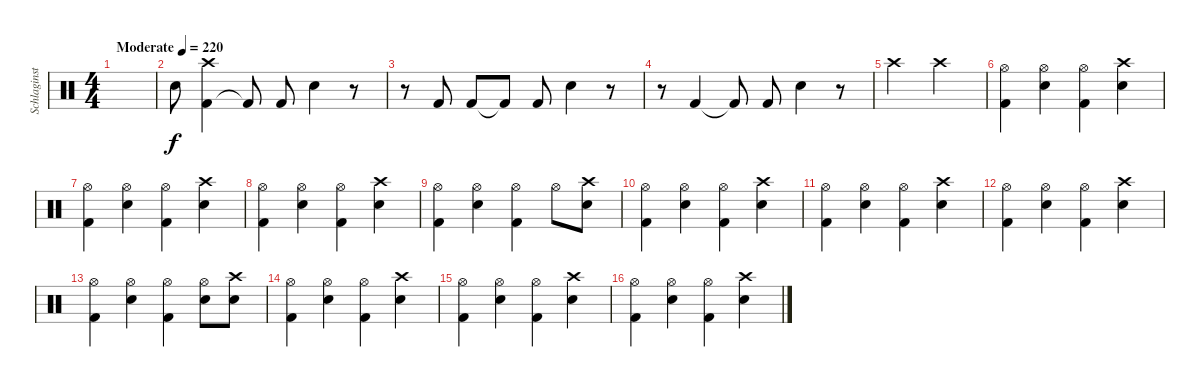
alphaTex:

\track ("Schlaginstrumente - Auswahl" "Schlaginst") {instrument percussion}
\staff {score}
\articulation defaults
\ts (4 4)
\tempo (220 "Moderate")
\clef neutral
\ks c
|
"Snare (hit) 2".8 ("Kick (hit) 2" "Crash high (hit)").4 "Kick (hit) 2"{t}.8 "Kick (hit) 2".8 "Snare (hit) 2".4 r.8 |
r.8 "Kick (hit) 2".8 "Kick (hit) 2".8 "Kick (hit) 2"{t}.8 "Kick (hit) 2".8 "Snare (hit) 2".4 r.8 |
r.8 "Kick (hit) 2".4 "Kick (hit) 2"{t}.8 "Kick (hit) 2".8 "Snare (hit) 2".4 r.8 |
"Crash high (hit)".2 "Crash high (hit)".2 |
("Hi-Hat (open)" "Kick (hit) 2").4 ("Hi-Hat (open)" "Snare (hit) 2").4 ("Hi-Hat (open)" "Kick (hit) 2").4 ("Crash high (hit)" "Snare (hit) 2").4 |
("Hi-Hat (open)" "Kick (hit) 2").4 ("Hi-Hat (open)" "Snare (hit) 2").4 ("Hi-Hat (open)" "Kick (hit) 2").4 ("Crash high (hit)" "Snare (hit) 2").4 |
("Hi-Hat (open)" "Kick (hit) 2").4 ("Hi-Hat (open)" "Snare (hit) 2").4 ("Hi-Hat (open)" "Kick (hit) 2").4 ("Crash high (hit)" "Snare (hit) 2").4 |
("Hi-Hat (open)" "Kick (hit) 2").4 ("Hi-Hat (open)" "Snare (hit) 2").4 ("Hi-Hat (open)" "Kick (hit) 2").4 "Hi-Hat (open)".8 ("Crash high (hit)" "Snare (hit) 2").8 |
("Hi-Hat (open)" "Kick (hit) 2").4 ("Hi-Hat (open)" "Snare (hit) 2").4 ("Hi-Hat (open)" "Kick (hit) 2").4 ("Crash high (hit)" "Snare (hit) 2").4 |
("Hi-Hat (open)" "Kick (hit) 2").4 ("Hi-Hat (open)" "Snare (hit) 2").4 ("Hi-Hat (open)" "Kick (hit) 2").4 ("Crash high (hit)" "Snare (hit) 2").4 |
("Hi-Hat (open)" "Kick (hit) 2").4 ("Hi-Hat (open)" "Snare (hit) 2").4 ("Hi-Hat (open)" "Kick (hit) 2").4 ("Crash high (hit)" "Snare (hit) 2").4 |
("Hi-Hat (open)" "Kick (hit) 2").4 ("Hi-Hat (open)" "Snare (hit) 2").4 ("Hi-Hat (open)" "Kick (hit) 2").4 ("Hi-Hat (open)" "Snare (hit) 2").8 ("Crash high (hit)" "Snare (hit) 2").8 |
("Hi-Hat (open)" "Kick (hit) 2").4 ("Hi-Hat (open)" "Snare (hit) 2").4 ("Hi-Hat (open)" "Kick (hit) 2").4 ("Crash high (hit)" "Snare (hit) 2").4 |
("Hi-Hat (open)" "Kick (hit) 2").4 ("Hi-Hat (open)" "Snare (hit) 2").4 ("Hi-Hat (open)" "Kick (hit) 2").4 ("Crash high (hit)" "Snare (hit) 2").4 |
("Hi-Hat (open)" "Kick (hit) 2").4 ("Hi-Hat (open)" "Snare (hit) 2").4 ("Hi-Hat (open)" "Kick (hit) 2").4 ("Crash high (hit)" "Snare (hit) 2").4
